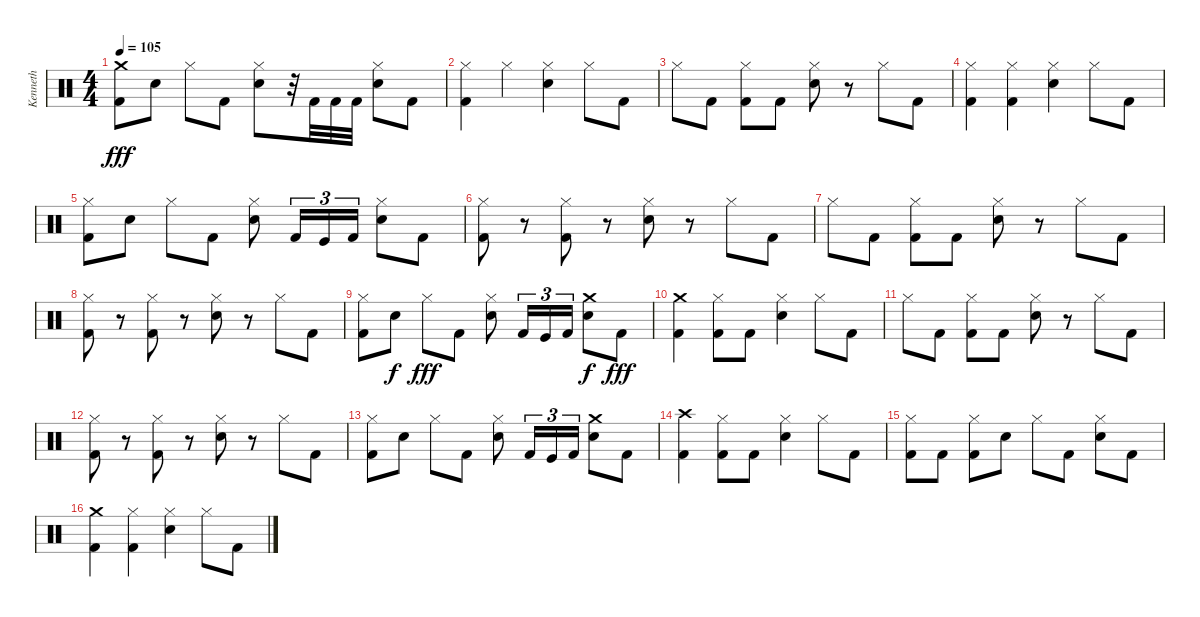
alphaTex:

\track ("Kenneth" "Kenneth") {instrument percussion}
\staff {score}
\articulation defaults
\ts (4 4)
\tempo 105
\clef neutral
\ks c
("Crash medium (hit)" "Kick (hit) 2").8{dy fff} "Electric Snare (hit)".8 "Hi-Hat (closed)".8 "Kick (hit) 2".8 ("Hi-Hat (closed)" "Electric Snare (hit)").8 r.32 "Kick (hit) 2".32 "Kick (hit) 2".32 "Kick (hit) 2".32 ("Hi-Hat (closed)" "Electric Snare (hit)").8 "Kick (hit) 2".8 |
("Hi-Hat (closed)" "Kick (hit) 2").4 "Hi-Hat (closed)".4 ("Hi-Hat (closed)" "Electric Snare (hit)").4 "Hi-Hat (closed)".8 "Kick (hit) 2".8 |
"Hi-Hat (closed)".8 "Kick (hit) 2".8 ("Hi-Hat (closed)" "Kick (hit) 2").8 "Kick (hit) 2".8 ("Hi-Hat (closed)" "Electric Snare (hit)").8 r.8 "Hi-Hat (closed)".8 "Kick (hit) 2".8 |
("Hi-Hat (closed)" "Kick (hit) 2").4 ("Hi-Hat (closed)" "Kick (hit) 2").4 ("Hi-Hat (closed)" "Electric Snare (hit)").4 "Hi-Hat (closed)".8 "Kick (hit) 2".8 |
("Hi-Hat (closed)" "Kick (hit) 2").8 "Electric Snare (hit)".8 "Hi-Hat (closed)".8 "Kick (hit) 2".8 ("Hi-Hat (closed)" "Electric Snare (hit)").8 "Kick (hit) 2".16{tu (3 2)} "Kick (hit)".16{tu (3 2)} "Kick (hit) 2".16{tu (3 2)} ("Hi-Hat (closed)" "Electric Snare (hit)").8 "Kick (hit) 2".8 |
("Hi-Hat (closed)" "Kick (hit) 2").8 r.8 ("Hi-Hat (closed)" "Kick (hit) 2").8 r.8 ("Hi-Hat (closed)" "Electric Snare (hit)").8 r.8 "Hi-Hat (closed)".8 "Kick (hit) 2".8 |
"Hi-Hat (closed)".8 "Kick (hit) 2".8 ("Hi-Hat (closed)" "Kick (hit) 2").8 "Kick (hit) 2".8 ("Hi-Hat (closed)" "Electric Snare (hit)").8 r.8 "Hi-Hat (closed)".8 "Kick (hit) 2".8 |
("Hi-Hat (closed)" "Kick (hit) 2").8 r.8 ("Hi-Hat (closed)" "Kick (hit) 2").8 r.8 ("Hi-Hat (closed)" "Electric Snare (hit)").8 r.8 "Hi-Hat (closed)".8 "Kick (hit) 2".8 |
("Hi-Hat (closed)" "Kick (hit) 2").8 "Electric Snare (hit)".8{dy f} "Hi-Hat (closed)".8{dy fff} "Kick (hit) 2".8 ("Hi-Hat (closed)" "Electric Snare (hit)").8 "Kick (hit) 2".16{tu (3 2)} "Kick (hit)".16{tu (3 2)} "Kick (hit) 2".16{tu (3 2)} ("Crash medium (hit)" "Electric Snare (hit)").8{dy f} "Kick (hit) 2".8{dy fff} |
("Crash medium (hit)" "Kick (hit) 2").4 ("Hi-Hat (closed)" "Kick (hit) 2").8 "Kick (hit) 2".8 ("Hi-Hat (closed)" "Electric Snare (hit)").4 "Hi-Hat (closed)".8 "Kick (hit) 2".8 |
"Hi-Hat (closed)".8 "Kick (hit) 2".8 ("Hi-Hat (closed)" "Kick (hit) 2").8 "Kick (hit) 2".8 ("Hi-Hat (closed)" "Electric Snare (hit)").8 r.8 "Hi-Hat (closed)".8 "Kick (hit) 2".8 |
("Hi-Hat (closed)" "Kick (hit) 2").8 r.8 ("Hi-Hat (closed)" "Kick (hit) 2").8 r.8 ("Hi-Hat (closed)" "Electric Snare (hit)").8 r.8 "Hi-Hat (closed)".8 "Kick (hit) 2".8 |
("Hi-Hat (closed)" "Kick (hit) 2").8 "Electric Snare (hit)".8 "Hi-Hat (closed)".8 "Kick (hit) 2".8 ("Hi-Hat (closed)" "Electric Snare (hit)").8 "Kick (hit) 2".16{tu (3 2)} "Kick (hit)".16{tu (3 2)} "Kick (hit) 2".16{tu (3 2)} ("Crash medium (hit)" "Electric Snare (hit)").8 "Kick (hit) 2".8 |
("Crash high (hit)" "Kick (hit) 2").4 ("Hi-Hat (closed)" "Kick (hit) 2").8 "Kick (hit) 2".8 ("Hi-Hat (closed)" "Electric Snare (hit)").4 "Hi-Hat (closed)".8 "Kick (hit) 2".8 |
("Hi-Hat (closed)" "Kick (hit) 2").8 "Kick (hit) 2".8 ("Hi-Hat (closed)" "Kick (hit) 2").8 "Electric Snare (hit)".8 "Hi-Hat (closed)".8 "Kick (hit) 2".8 ("Hi-Hat (closed)" "Electric Snare (hit)").8 "Kick (hit) 2".8 |
("Crash medium (hit)" "Kick (hit) 2").4 ("Hi-Hat (closed)" "Kick (hit) 2").4 ("Hi-Hat (closed)" "Electric Snare (hit)").4 "Hi-Hat (closed)".8 "Kick (hit) 2".8
